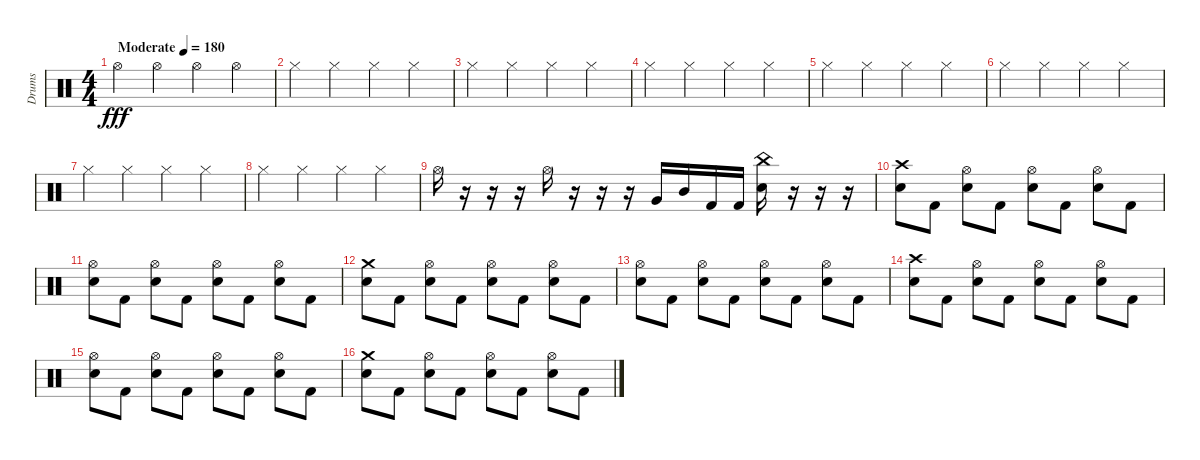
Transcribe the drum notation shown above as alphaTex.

\track ("Drums" "Drums") {instrument percussion}
\staff {score}
\articulation defaults
\ts (4 4)
\tempo (180 "Moderate")
\clef neutral
\ks c "Hi-Hat (open)".4{dy fff} "Hi-Hat (open)".4 "Hi-Hat (open)".4 "Hi-Hat (open)".4
|
"Hi-Hat (closed)".4 "Hi-Hat (closed)".4 "Hi-Hat (closed)".4 "Hi-Hat (closed)".4 |
"Hi-Hat (closed)".4 "Hi-Hat (closed)".4 "Hi-Hat (closed)".4 "Hi-Hat (closed)".4 |
"Hi-Hat (closed)".4 "Hi-Hat (closed)".4 "Hi-Hat (closed)".4 "Hi-Hat (closed)".4 |
"Hi-Hat (closed)".4 "Hi-Hat (closed)".4 "Hi-Hat (closed)".4 "Hi-Hat (closed)".4 |
"Hi-Hat (closed)".4 "Hi-Hat (closed)".4 "Hi-Hat (closed)".4 "Hi-Hat (closed)".4 |
"Hi-Hat (closed)".4 "Hi-Hat (closed)".4 "Hi-Hat (closed)".4 "Hi-Hat (closed)".4 |
"Hi-Hat (closed)".4 "Hi-Hat (closed)".4 "Hi-Hat (closed)".4 "Hi-Hat (closed)".4 |
"Hi-Hat (open)".16 r.16 r.16 r.16 "Hi-Hat (open)".16 r.16 r.16 r.16 "Very Low Tom (hit)".16 "Mid Tom (hit)".16 "Kick (hit) 2".16 "Kick (hit) 2".16 ("China (hit)" "Electric Snare (hit)").16 r.16 r.16 r.16 |
("Crash high (hit)" "Electric Snare (hit)").8 "Kick (hit) 2".8 ("Hi-Hat (open)" "Electric Snare (hit)").8 "Kick (hit) 2".8 ("Hi-Hat (open)" "Electric Snare (hit)").8 "Kick (hit) 2".8 ("Hi-Hat (open)" "Electric Snare (hit)").8 "Kick (hit) 2".8 |
("Hi-Hat (open)" "Electric Snare (hit)").8 "Kick (hit) 2".8 ("Hi-Hat (open)" "Electric Snare (hit)").8 "Kick (hit) 2".8 ("Hi-Hat (open)" "Electric Snare (hit)").8 "Kick (hit) 2".8 ("Hi-Hat (open)" "Electric Snare (hit)").8 "Kick (hit) 2".8 |
("Crash medium (hit)" "Electric Snare (hit)").8 "Kick (hit) 2".8 ("Hi-Hat (open)" "Electric Snare (hit)").8 "Kick (hit) 2".8 ("Hi-Hat (open)" "Electric Snare (hit)").8 "Kick (hit) 2".8 ("Hi-Hat (open)" "Electric Snare (hit)").8 "Kick (hit) 2".8 |
("Hi-Hat (open)" "Electric Snare (hit)").8 "Kick (hit) 2".8 ("Hi-Hat (open)" "Electric Snare (hit)").8 "Kick (hit) 2".8 ("Hi-Hat (open)" "Electric Snare (hit)").8 "Kick (hit) 2".8 ("Hi-Hat (open)" "Electric Snare (hit)").8 "Kick (hit) 2".8 |
("Crash high (hit)" "Electric Snare (hit)").8 "Kick (hit) 2".8 ("Hi-Hat (open)" "Electric Snare (hit)").8 "Kick (hit) 2".8 ("Hi-Hat (open)" "Electric Snare (hit)").8 "Kick (hit) 2".8 ("Hi-Hat (open)" "Electric Snare (hit)").8 "Kick (hit) 2".8 |
("Hi-Hat (open)" "Electric Snare (hit)").8 "Kick (hit) 2".8 ("Hi-Hat (open)" "Electric Snare (hit)").8 "Kick (hit) 2".8 ("Hi-Hat (open)" "Electric Snare (hit)").8 "Kick (hit) 2".8 ("Hi-Hat (open)" "Electric Snare (hit)").8 "Kick (hit) 2".8 |
("Crash medium (hit)" "Electric Snare (hit)").8 "Kick (hit) 2".8 ("Hi-Hat (open)" "Electric Snare (hit)").8 "Kick (hit) 2".8 ("Hi-Hat (open)" "Electric Snare (hit)").8 "Kick (hit) 2".8 ("Hi-Hat (open)" "Electric Snare (hit)").8 "Kick (hit) 2".8
